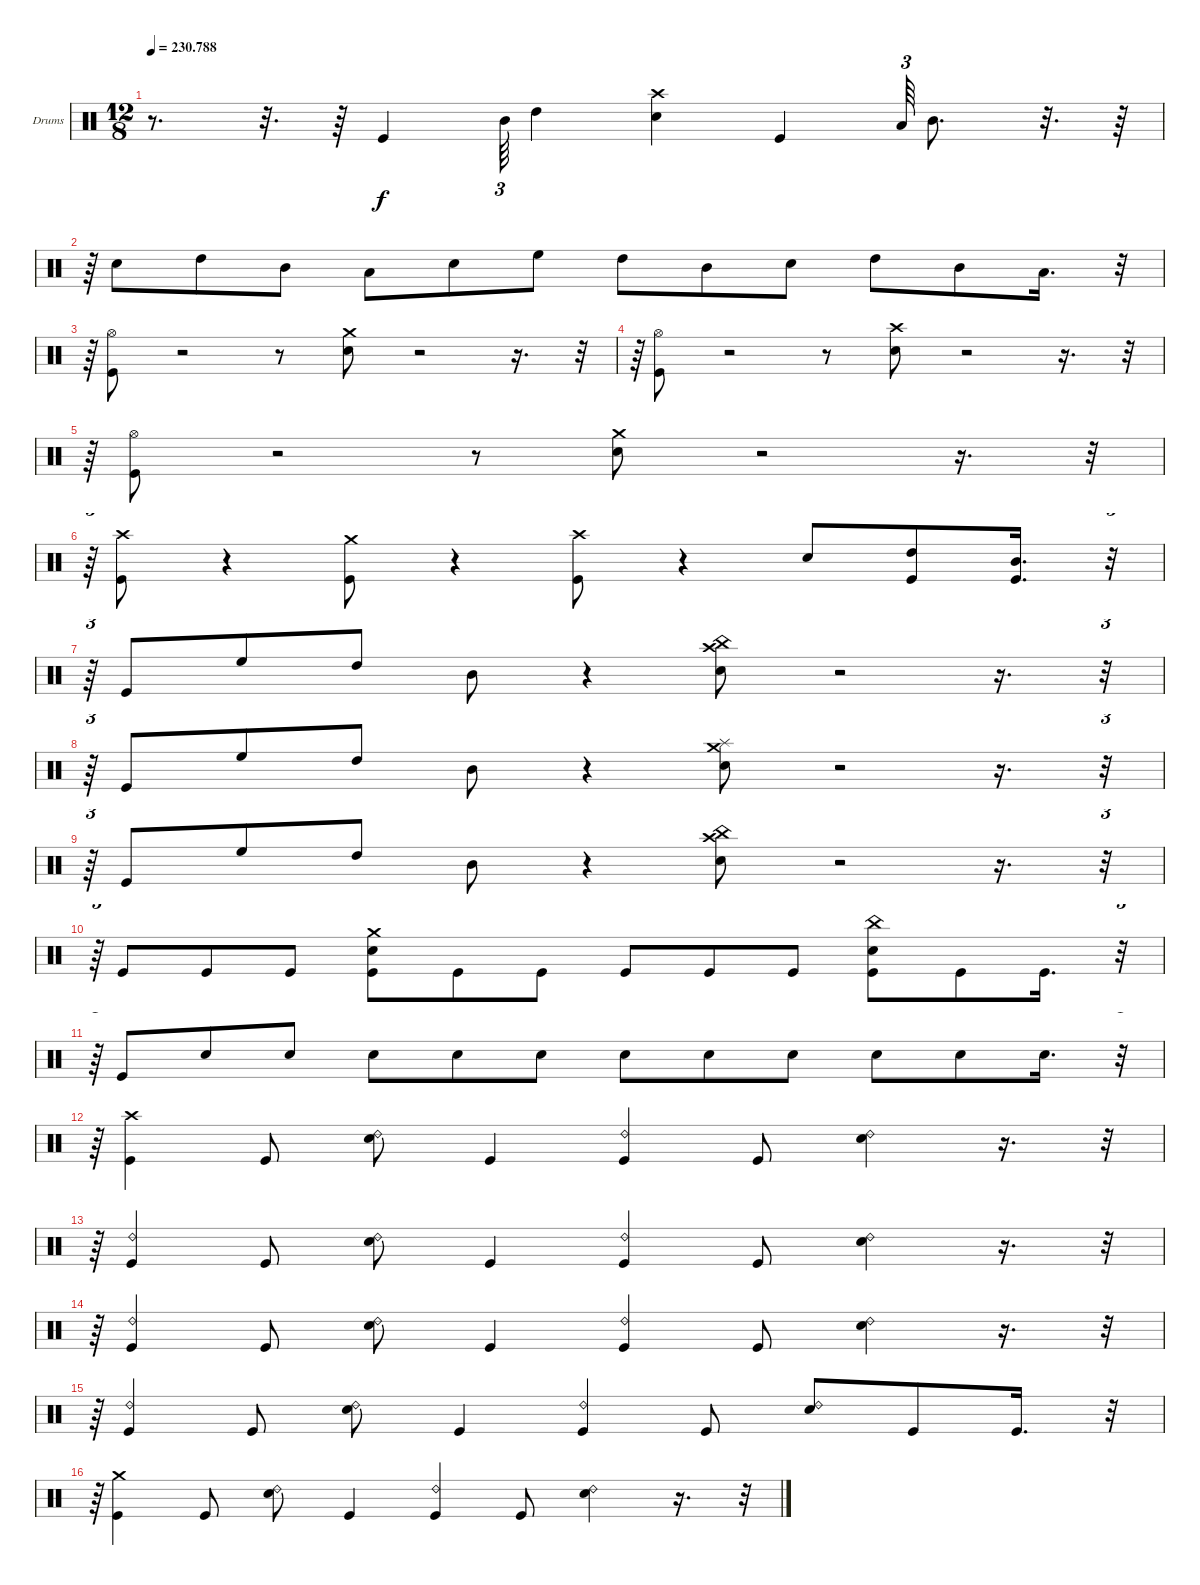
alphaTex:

\bracketExtendMode groupsimilarinstruments
\firstSystemTrackNameOrientation horizontal
\otherSystemsTrackNameOrientation horizontal
\track ("Ударные" "Drums") {instrument percussion}
\staff {score}
\articulation defaults
\ts (12 8)
\tempo
230.788
\accidentals auto
\clef neutral
\ottava regular
\simile none
\ks c
r.8{d dy f} r.32{d} r.64 "Kick (hit)".4 "Mid Tom (hit)".64{tu (3 2)} "High Tom (hit)".4 ("Crash high (hit)" "Snare (hit) 2").4 "Kick (hit)".4 "Low Tom (hit)".64{tu (3 2)} "Mid Tom (hit)".8{d} r.32{d} r.64 |
r.64{tu (3 2)} "Snare (hit) 2".8 "High Tom (hit)".8 "Mid Tom (hit)".8 "Low Tom (hit)".8 "Snare (hit) 2".8 "High Floor Tom (hit)".8 "High Tom (hit)".8 "Mid Tom (hit)".8 "Snare (hit) 2".8 "High Tom (hit)".8 "Mid Tom (hit)".8 "Low Tom (hit)".16{d} r.32{tu (3 2)} |
r.64{tu (3 2)} ("Hi-Hat (open)" "Kick (hit)").8 r.2 r.8 ("Crash medium (hit)" "Snare (hit) 2").8 r.2 r.16{d} r.32{tu (3 2)} |
r.64{tu (3 2)} ("Hi-Hat (open)" "Kick (hit)").8 r.2 r.8 ("Crash high (hit)" "Snare (hit) 2").8 r.2 r.16{d} r.32{tu (3 2)} |
r.64{tu (3 2)} ("Hi-Hat (open)" "Kick (hit)").8 r.2 r.8 ("Crash medium (hit)" "Snare (hit) 2").8 r.2 r.16{d} r.32{tu (3 2)} |
r.64{tu (3 2)} ("Crash high (hit)" "Kick (hit)").8 r.4 ("Crash medium (hit)" "Kick (hit)").8 r.4 ("Crash high (hit)" "Kick (hit)").8 r.4 "Snare (hit) 2".8 ("Kick (hit)" "High Tom (hit)").8 ("Kick (hit)" "Mid Tom (hit)").16{d} r.32{tu (3 2)} |
r.64{tu (3 2)} "Kick (hit)".8 "High Floor Tom (hit)".8 "High Tom (hit)".8 "Mid Tom (hit)".8 r.4 ("China (hit)" "Crash high (hit)" "Snare (hit) 2").8 r.2 r.16{d} r.32{tu (3 2)} |
r.64{tu (3 2)} "Kick (hit)".8 "High Floor Tom (hit)".8 "High Tom (hit)".8 "Mid Tom (hit)".8 r.4 ("Splash (hit)" "Crash medium (hit)" "Snare (hit) 2").8 r.2 r.16{d} r.32{tu (3 2)} |
r.64{tu (3 2)} "Kick (hit)".8 "High Floor Tom (hit)".8 "High Tom (hit)".8 "Mid Tom (hit)".8 r.4 ("China (hit)" "Crash high (hit)" "Snare (hit) 2").8 r.2 r.16{d} r.32{tu (3 2)} |
r.64{tu (3 2)} "Kick (hit)".8 "Kick (hit)".8 "Kick (hit)".8 ("Kick (hit)" "Crash medium (hit)" "Snare (hit) 2").8 "Kick (hit)".8 "Kick (hit)".8 "Kick (hit)".8 "Kick (hit)".8 "Kick (hit)".8 ("Kick (hit)" "China (hit)" "Snare (hit) 2").8 "Kick (hit)".8 "Kick (hit)".16{d} r.32{tu (3 2)} |
r.64{tu (3 2)} "Kick (hit)".8 "Snare (hit) 2".8 "Snare (hit) 2".8 "Snare (hit) 2".8 "Snare (hit) 2".8 "Snare (hit) 2".8 "Snare (hit) 2".8 "Snare (hit) 2".8 "Snare (hit) 2".8 "Snare (hit) 2".8 "Snare (hit) 2".8 "Snare (hit) 2".16{d} r.32{tu (3 2)} |
r.64{tu (3 2)} ("Crash high (hit)" "Kick (hit)").4 "Kick (hit)".8 ("Ride (bell) 2" "Snare (hit) 2").8 "Kick (hit)".4 ("Ride (bell) 2" "Kick (hit)").4 "Kick (hit)".8 ("Ride (bell) 2" "Snare (hit) 2").4 r.16{d} r.32{tu (3 2)} |
r.64{tu (3 2)} ("Ride (bell) 2" "Kick (hit)").4 "Kick (hit)".8 ("Ride (bell) 2" "Snare (hit) 2").8 "Kick (hit)".4 ("Ride (bell) 2" "Kick (hit)").4 "Kick (hit)".8 ("Ride (bell) 2" "Snare (hit) 2").4 r.16{d} r.32{tu (3 2)} |
r.64{tu (3 2)} ("Kick (hit)" "Ride (bell) 2").4 "Kick (hit)".8 ("Ride (bell) 2" "Snare (hit) 2").8 "Kick (hit)".4 ("Kick (hit)" "Ride (bell) 2").4 "Kick (hit)".8 ("Ride (bell) 2" "Snare (hit) 2").4 r.16{d} r.32{tu (3 2)} |
r.64{tu (3 2)} ("Kick (hit)" "Ride (bell) 2").4 "Kick (hit)".8 ("Ride (bell) 2" "Snare (hit) 2").8 "Kick (hit)".4 ("Ride (bell) 2" "Kick (hit)").4 "Kick (hit)".8 ("Ride (bell) 2" "Snare (hit) 2").8 "Kick (hit)".8 "Kick (hit)".16{d} r.32{tu (3 2)} |
r.64{tu (3 2)} ("Crash medium (hit)" "Kick (hit)").4 "Kick (hit)".8 ("Ride (bell) 2" "Snare (hit) 2").8 "Kick (hit)".4 ("Ride (bell) 2" "Kick (hit)").4 "Kick (hit)".8 ("Ride (bell) 2" "Snare (hit) 2").4 r.16{d} r.32{tu (3 2)}
